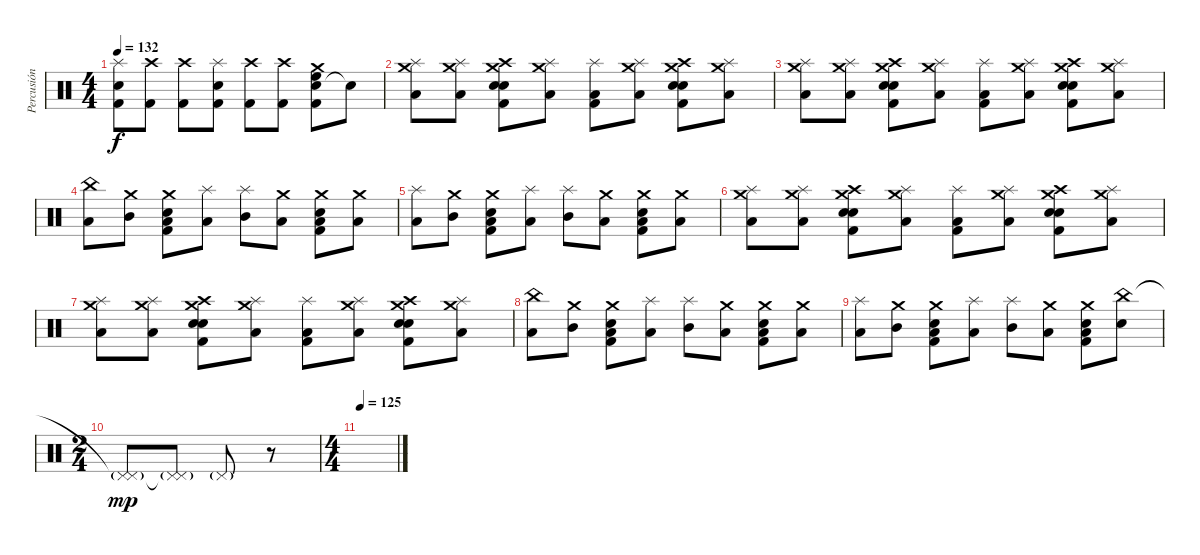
\track ("Percusión" "Percusión") {instrument percussion}
\staff {score}
\articulation defaults
\ts (4 4)
\tempo 132
\clef neutral
\ks c
("Electric Snare (hit)" "Kick (hit) 2" "Splash (hit)").8{dy f} ("Kick (hit) 2" "Crash high (hit)").8 ("Kick (hit) 2" "Crash high (hit)").8 ("Electric Snare (hit)" "Kick (hit) 2" "Splash (hit)").8 ("Kick (hit) 2" "Crash high (hit)").8 ("Kick (hit) 2" "Crash high (hit)").8 ("Electric Snare (hit)" "Kick (hit) 2" "Crash medium (hit)" "High Floor Tom (hit)").8 "Electric Snare (hit)"{t}.8 |
("Splash (hit)" "Crash medium (hit)" "Low Floor Tom (hit)").8 ("Splash (hit)" "Crash medium (hit)" "Low Floor Tom (hit)").8 ("Crash high (hit)" "Crash medium (hit)" "Kick (hit) 2" "Electric Snare (hit)" "Snare (hit) 2").8 ("Splash (hit)" "Crash medium (hit)" "Low Floor Tom (hit)").8 ("Splash (hit)" "Kick (hit) 2" "Low Floor Tom (hit)").8 ("Splash (hit)" "Crash medium (hit)" "Low Floor Tom (hit)").8 ("Crash high (hit)" "Crash medium (hit)" "Kick (hit) 2" "Electric Snare (hit)" "Snare (hit) 2").8 ("Splash (hit)" "Crash medium (hit)" "Low Floor Tom (hit)").8 |
("Splash (hit)" "Crash medium (hit)" "Low Floor Tom (hit)").8 ("Splash (hit)" "Crash medium (hit)" "Low Floor Tom (hit)").8 ("Crash high (hit)" "Crash medium (hit)" "Kick (hit) 2" "Electric Snare (hit)" "Snare (hit) 2").8 ("Splash (hit)" "Crash medium (hit)" "Low Floor Tom (hit)").8 ("Splash (hit)" "Kick (hit) 2" "Low Floor Tom (hit)").8 ("Splash (hit)" "Crash medium (hit)" "Low Floor Tom (hit)").8 ("Crash high (hit)" "Crash medium (hit)" "Kick (hit) 2" "Electric Snare (hit)" "Snare (hit) 2").8 ("Splash (hit)" "Crash medium (hit)" "Low Floor Tom (hit)").8 |
("China (hit)" "Low Floor Tom (hit)").8 ("Crash medium (hit)" "Mid Tom (hit)").8 ("Crash medium (hit)" "Low Floor Tom (hit)" "Electric Snare (hit)" "Kick (hit) 2").8 ("Splash (hit)" "Low Floor Tom (hit)").8 ("Splash (hit)" "Mid Tom (hit)").8 ("Crash medium (hit)" "Low Floor Tom (hit)").8 ("Crash medium (hit)" "Low Floor Tom (hit)" "Electric Snare (hit)" "Kick (hit) 2").8 ("Crash medium (hit)" "Low Floor Tom (hit)").8 |
("Splash (hit)" "Low Floor Tom (hit)").8 ("Crash medium (hit)" "Mid Tom (hit)").8 ("Crash medium (hit)" "Low Floor Tom (hit)" "Electric Snare (hit)" "Kick (hit) 2").8 ("Splash (hit)" "Low Floor Tom (hit)").8 ("Splash (hit)" "Mid Tom (hit)").8 ("Crash medium (hit)" "Low Floor Tom (hit)").8 ("Crash medium (hit)" "Low Floor Tom (hit)" "Electric Snare (hit)" "Kick (hit) 2").8 ("Crash medium (hit)" "Low Floor Tom (hit)").8 |
("Splash (hit)" "Crash medium (hit)" "Low Floor Tom (hit)").8 ("Splash (hit)" "Crash medium (hit)" "Low Floor Tom (hit)").8 ("Crash high (hit)" "Crash medium (hit)" "Kick (hit) 2" "Electric Snare (hit)" "Snare (hit) 2").8 ("Splash (hit)" "Crash medium (hit)" "Low Floor Tom (hit)").8 ("Splash (hit)" "Kick (hit) 2" "Low Floor Tom (hit)").8 ("Splash (hit)" "Crash medium (hit)" "Low Floor Tom (hit)").8 ("Crash high (hit)" "Crash medium (hit)" "Kick (hit) 2" "Electric Snare (hit)" "Snare (hit) 2").8 ("Splash (hit)" "Crash medium (hit)" "Low Floor Tom (hit)").8 |
("Splash (hit)" "Crash medium (hit)" "Low Floor Tom (hit)").8 ("Splash (hit)" "Crash medium (hit)" "Low Floor Tom (hit)").8 ("Crash high (hit)" "Crash medium (hit)" "Kick (hit) 2" "Electric Snare (hit)" "Snare (hit) 2").8 ("Splash (hit)" "Crash medium (hit)" "Low Floor Tom (hit)").8 ("Splash (hit)" "Kick (hit) 2" "Low Floor Tom (hit)").8 ("Splash (hit)" "Crash medium (hit)" "Low Floor Tom (hit)").8 ("Crash high (hit)" "Crash medium (hit)" "Kick (hit) 2" "Electric Snare (hit)" "Snare (hit) 2").8 ("Splash (hit)" "Crash medium (hit)" "Low Floor Tom (hit)").8 |
("China (hit)" "Low Floor Tom (hit)").8 ("Crash medium (hit)" "Mid Tom (hit)").8 ("Crash medium (hit)" "Low Floor Tom (hit)" "Electric Snare (hit)" "Kick (hit) 2").8 ("Splash (hit)" "Low Floor Tom (hit)").8 ("Splash (hit)" "Mid Tom (hit)").8 ("Crash medium (hit)" "Low Floor Tom (hit)").8 ("Crash medium (hit)" "Low Floor Tom (hit)" "Electric Snare (hit)" "Kick (hit) 2").8 ("Crash medium (hit)" "Low Floor Tom (hit)").8 |
("Splash (hit)" "Low Floor Tom (hit)").8 ("Crash medium (hit)" "Mid Tom (hit)").8 ("Crash medium (hit)" "Low Floor Tom (hit)" "Electric Snare (hit)" "Kick (hit) 2").8 ("Splash (hit)" "Low Floor Tom (hit)").8 ("Splash (hit)" "Mid Tom (hit)").8 ("Crash medium (hit)" "Low Floor Tom (hit)").8 ("Crash medium (hit)" "Low Floor Tom (hit)" "Electric Snare (hit)" "Kick (hit) 2").8 ("China (hit)" "Snare (hit) 2").8 |
\ts (2 4)
("Pedal Hi-Hat (hit)"{t} "Pedal Hi-Hat (hit)"{g}).8{dy mp} ("Pedal Hi-Hat (hit)"{t} "Pedal Hi-Hat (hit)"{g}).8 "Pedal Hi-Hat (hit)"{g}.8 r.8 |
\ts (4 4)
\tempo 105
\tempo 125
